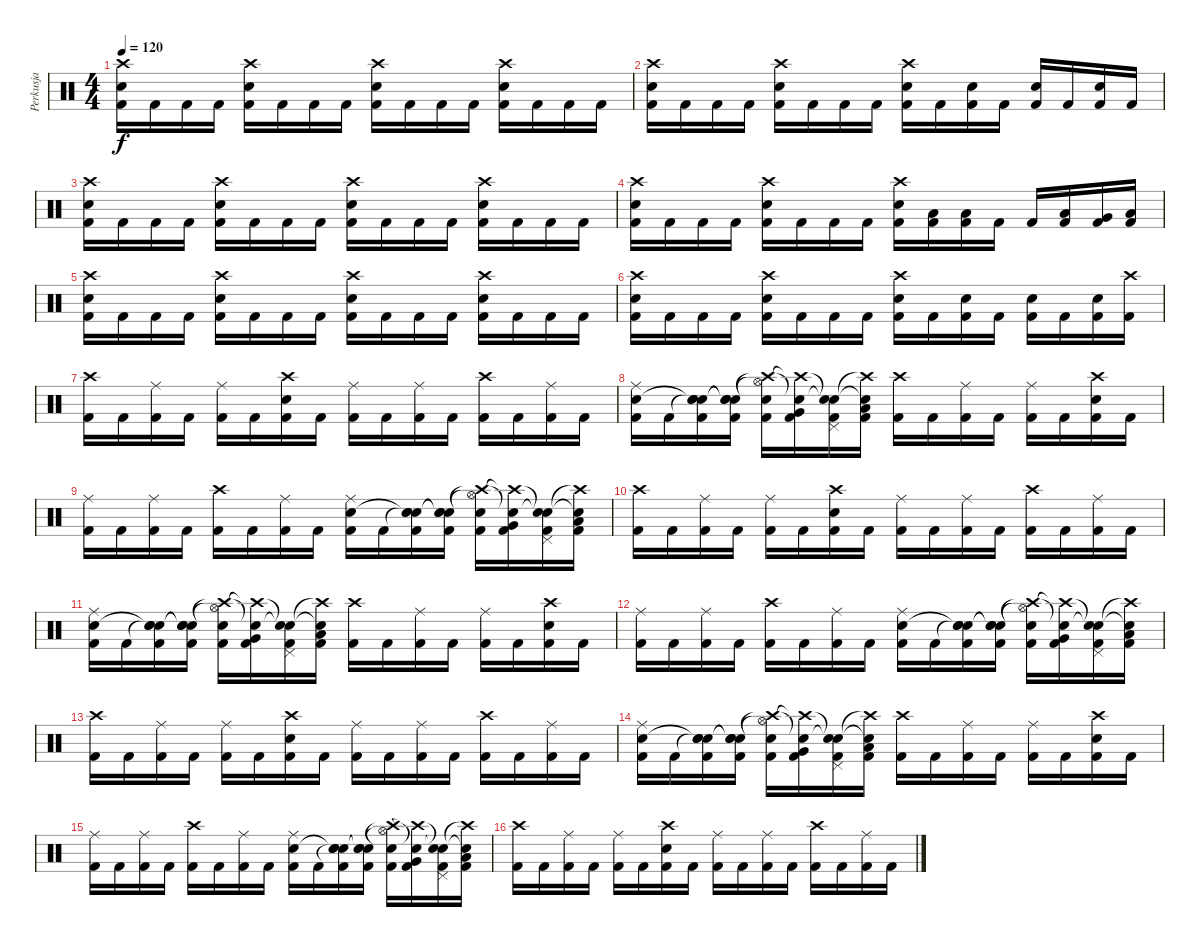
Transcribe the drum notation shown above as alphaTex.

\track ("Perkusja" "Perkusja") {instrument percussion}
\staff {score}
\articulation defaults
\ts (4 4)
\tempo 120
\clef neutral
\ks c
("Crash high (hit)" "Electric Snare (hit)" "Kick (hit) 2").16{dy f} "Kick (hit) 2".16 "Kick (hit) 2".16 "Kick (hit) 2".16 ("Crash high (hit)" "Electric Snare (hit)" "Kick (hit) 2").16 "Kick (hit) 2".16 "Kick (hit) 2".16 "Kick (hit) 2".16 ("Crash high (hit)" "Electric Snare (hit)" "Kick (hit) 2").16 "Kick (hit) 2".16 "Kick (hit) 2".16 "Kick (hit) 2".16 ("Crash high (hit)" "Electric Snare (hit)" "Kick (hit) 2").16 "Kick (hit) 2".16 "Kick (hit) 2".16 "Kick (hit) 2".16 |
("Crash high (hit)" "Electric Snare (hit)" "Kick (hit) 2").16 "Kick (hit) 2".16 "Kick (hit) 2".16 "Kick (hit) 2".16 ("Crash high (hit)" "Electric Snare (hit)" "Kick (hit) 2").16 "Kick (hit) 2".16 "Kick (hit) 2".16 "Kick (hit) 2".16 ("Crash high (hit)" "Electric Snare (hit)" "Kick (hit) 2").16 "Kick (hit) 2".16 ("Electric Snare (hit)" "Kick (hit) 2").16 "Kick (hit) 2".16 ("Electric Snare (hit)" "Kick (hit) 2").16 "Kick (hit) 2".16 ("Electric Snare (hit)" "Kick (hit) 2").16 "Kick (hit) 2".16 |
("Crash high (hit)" "Electric Snare (hit)" "Kick (hit) 2").16 "Kick (hit) 2".16 "Kick (hit) 2".16 "Kick (hit) 2".16 ("Crash high (hit)" "Electric Snare (hit)" "Kick (hit) 2").16 "Kick (hit) 2".16 "Kick (hit) 2".16 "Kick (hit) 2".16 ("Crash high (hit)" "Electric Snare (hit)" "Kick (hit) 2").16 "Kick (hit) 2".16 "Kick (hit) 2".16 "Kick (hit) 2".16 ("Crash high (hit)" "Electric Snare (hit)" "Kick (hit) 2").16 "Kick (hit) 2".16 "Kick (hit) 2".16 "Kick (hit) 2".16 |
("Crash high (hit)" "Electric Snare (hit)" "Kick (hit) 2").16 "Kick (hit) 2".16 "Kick (hit) 2".16 "Kick (hit) 2".16 ("Crash high (hit)" "Electric Snare (hit)" "Kick (hit) 2").16 "Kick (hit) 2".16 "Kick (hit) 2".16 "Kick (hit) 2".16 ("Crash high (hit)" "Electric Snare (hit)" "Kick (hit) 2").16 ("Low Floor Tom (hit)" "Kick (hit) 2").16 ("Low Floor Tom (hit)" "Kick (hit) 2").16 "Kick (hit) 2".16 "Kick (hit) 2".16 ("Low Floor Tom (hit)" "Kick (hit) 2").16 ("Very Low Tom (hit)" "Kick (hit) 2").16 ("Low Floor Tom (hit)" "Kick (hit) 2").16 |
("Crash high (hit)" "Electric Snare (hit)" "Kick (hit) 2").16 "Kick (hit) 2".16 "Kick (hit) 2".16 "Kick (hit) 2".16 ("Crash high (hit)" "Electric Snare (hit)" "Kick (hit) 2").16 "Kick (hit) 2".16 "Kick (hit) 2".16 "Kick (hit) 2".16 ("Crash high (hit)" "Electric Snare (hit)" "Kick (hit) 2").16 "Kick (hit) 2".16 "Kick (hit) 2".16 "Kick (hit) 2".16 ("Crash high (hit)" "Electric Snare (hit)" "Kick (hit) 2").16 "Kick (hit) 2".16 "Kick (hit) 2".16 "Kick (hit) 2".16 |
("Crash high (hit)" "Electric Snare (hit)" "Kick (hit) 2").16 "Kick (hit) 2".16 "Kick (hit) 2".16 "Kick (hit) 2".16 ("Crash high (hit)" "Electric Snare (hit)" "Kick (hit) 2").16 "Kick (hit) 2".16 "Kick (hit) 2".16 "Kick (hit) 2".16 ("Crash high (hit)" "Electric Snare (hit)" "Kick (hit) 2").16 "Kick (hit) 2".16 ("Electric Snare (hit)" "Kick (hit) 2").16 "Kick (hit) 2".16 ("Electric Snare (hit)" "Kick (hit) 2").16 "Kick (hit) 2".16 ("Electric Snare (hit)" "Kick (hit) 2").16 ("Crash high (hit)" "Kick (hit) 2").16 |
("Crash high (hit)" "Kick (hit) 2").16 "Kick (hit) 2".16 ("Ride (middle)" "Kick (hit) 2").16 "Kick (hit) 2".16 ("Ride (middle)" "Kick (hit) 2").16 "Kick (hit) 2".16 ("Crash high (hit)" "Electric Snare (hit)" "Kick (hit) 2").16 "Kick (hit) 2".16 ("Ride (middle)" "Kick (hit) 2").16 "Kick (hit) 2".16 ("Ride (middle)" "Kick (hit) 2").16 "Kick (hit) 2".16 ("Crash high (hit)" "Kick (hit) 2").16 "Kick (hit) 2".16 ("Ride (middle)" "Kick (hit) 2").16 "Kick (hit) 2".16 |
("Ride (middle)" "Electric Snare (hit)" "Kick (hit) 2").16 "Kick (hit) 2".16 ("Snare (hit)"{t} "Snare (hit)"{t} "Electric Snare (hit)" "Kick (hit) 2").16 ("Snare (hit)"{t} "Snare (hit)"{t} "Electric Snare (hit)" "Kick (hit) 2").16 ("Crash high (hit)"{t} "Hi-Hat (open)"{t} "Electric Snare (hit)" "Kick (hit) 2").16 ("Snare (hit)"{t} "Crash high (hit)"{t} "Very Low Tom (hit)" "Kick (hit) 2").16 ("Snare (hit)"{t} "Snare (hit)"{t} "Pedal Hi-Hat (hit)" "Kick (hit) 2").16 ("Snare (hit)"{t} "Crash high (hit)"{t} "Low Floor Tom (hit)" "Kick (hit) 2").16 ("Crash high (hit)" "Kick (hit) 2").16 "Kick (hit) 2".16 ("Ride (middle)" "Kick (hit) 2").16 "Kick (hit) 2".16 ("Ride (middle)" "Kick (hit) 2").16 "Kick (hit) 2".16 ("Crash high (hit)" "Electric Snare (hit)" "Kick (hit) 2").16 "Kick (hit) 2".16 |
("Ride (middle)" "Kick (hit) 2").16 "Kick (hit) 2".16 ("Ride (middle)" "Kick (hit) 2").16 "Kick (hit) 2".16 ("Crash high (hit)" "Kick (hit) 2").16 "Kick (hit) 2".16 ("Ride (middle)" "Kick (hit) 2").16 "Kick (hit) 2".16 ("Ride (middle)" "Electric Snare (hit)" "Kick (hit) 2").16 "Kick (hit) 2".16 ("Snare (hit)"{t} "Snare (hit)"{t} "Electric Snare (hit)" "Kick (hit) 2").16 ("Snare (hit)"{t} "Snare (hit)"{t} "Electric Snare (hit)" "Kick (hit) 2").16 ("Crash high (hit)"{t} "Hi-Hat (open)"{t} "Electric Snare (hit)" "Kick (hit) 2").16 ("Snare (hit)"{t} "Crash high (hit)"{t} "Very Low Tom (hit)" "Kick (hit) 2").16 ("Snare (hit)"{t} "Snare (hit)"{t} "Pedal Hi-Hat (hit)" "Kick (hit) 2").16 ("Snare (hit)"{t} "Crash high (hit)"{t} "Low Floor Tom (hit)" "Kick (hit) 2").16 |
("Crash high (hit)" "Kick (hit) 2").16 "Kick (hit) 2".16 ("Ride (middle)" "Kick (hit) 2").16 "Kick (hit) 2".16 ("Ride (middle)" "Kick (hit) 2").16 "Kick (hit) 2".16 ("Crash high (hit)" "Electric Snare (hit)" "Kick (hit) 2").16 "Kick (hit) 2".16 ("Ride (middle)" "Kick (hit) 2").16 "Kick (hit) 2".16 ("Ride (middle)" "Kick (hit) 2").16 "Kick (hit) 2".16 ("Crash high (hit)" "Kick (hit) 2").16 "Kick (hit) 2".16 ("Ride (middle)" "Kick (hit) 2").16 "Kick (hit) 2".16 |
("Ride (middle)" "Electric Snare (hit)" "Kick (hit) 2").16 "Kick (hit) 2".16 ("Snare (hit)"{t} "Snare (hit)"{t} "Electric Snare (hit)" "Kick (hit) 2").16 ("Snare (hit)"{t} "Snare (hit)"{t} "Electric Snare (hit)" "Kick (hit) 2").16 ("Crash high (hit)"{t} "Hi-Hat (open)"{t} "Electric Snare (hit)" "Kick (hit) 2").16 ("Snare (hit)"{t} "Crash high (hit)"{t} "Very Low Tom (hit)" "Kick (hit) 2").16 ("Snare (hit)"{t} "Snare (hit)"{t} "Pedal Hi-Hat (hit)" "Kick (hit) 2").16 ("Snare (hit)"{t} "Crash high (hit)"{t} "Low Floor Tom (hit)" "Kick (hit) 2").16 ("Crash high (hit)" "Kick (hit) 2").16 "Kick (hit) 2".16 ("Ride (middle)" "Kick (hit) 2").16 "Kick (hit) 2".16 ("Ride (middle)" "Kick (hit) 2").16 "Kick (hit) 2".16 ("Crash high (hit)" "Electric Snare (hit)" "Kick (hit) 2").16 "Kick (hit) 2".16 |
("Ride (middle)" "Kick (hit) 2").16 "Kick (hit) 2".16 ("Ride (middle)" "Kick (hit) 2").16 "Kick (hit) 2".16 ("Crash high (hit)" "Kick (hit) 2").16 "Kick (hit) 2".16 ("Ride (middle)" "Kick (hit) 2").16 "Kick (hit) 2".16 ("Ride (middle)" "Electric Snare (hit)" "Kick (hit) 2").16 "Kick (hit) 2".16 ("Snare (hit)"{t} "Snare (hit)"{t} "Electric Snare (hit)" "Kick (hit) 2").16 ("Snare (hit)"{t} "Snare (hit)"{t} "Electric Snare (hit)" "Kick (hit) 2").16 ("Crash high (hit)"{t} "Hi-Hat (open)"{t} "Electric Snare (hit)" "Kick (hit) 2").16 ("Snare (hit)"{t} "Crash high (hit)"{t} "Very Low Tom (hit)" "Kick (hit) 2").16 ("Snare (hit)"{t} "Snare (hit)"{t} "Pedal Hi-Hat (hit)" "Kick (hit) 2").16 ("Snare (hit)"{t} "Crash high (hit)"{t} "Low Floor Tom (hit)" "Kick (hit) 2").16 |
("Crash high (hit)" "Kick (hit) 2").16 "Kick (hit) 2".16 ("Ride (middle)" "Kick (hit) 2").16 "Kick (hit) 2".16 ("Ride (middle)" "Kick (hit) 2").16 "Kick (hit) 2".16 ("Crash high (hit)" "Electric Snare (hit)" "Kick (hit) 2").16 "Kick (hit) 2".16 ("Ride (middle)" "Kick (hit) 2").16 "Kick (hit) 2".16 ("Ride (middle)" "Kick (hit) 2").16 "Kick (hit) 2".16 ("Crash high (hit)" "Kick (hit) 2").16 "Kick (hit) 2".16 ("Ride (middle)" "Kick (hit) 2").16 "Kick (hit) 2".16 |
("Ride (middle)" "Electric Snare (hit)" "Kick (hit) 2").16 "Kick (hit) 2".16 ("Snare (hit)"{t} "Snare (hit)"{t} "Electric Snare (hit)" "Kick (hit) 2").16 ("Snare (hit)"{t} "Snare (hit)"{t} "Electric Snare (hit)" "Kick (hit) 2").16 ("Crash high (hit)"{t} "Hi-Hat (open)"{t} "Electric Snare (hit)" "Kick (hit) 2").16 ("Snare (hit)"{t} "Crash high (hit)"{t} "Very Low Tom (hit)" "Kick (hit) 2").16 ("Snare (hit)"{t} "Snare (hit)"{t} "Pedal Hi-Hat (hit)" "Kick (hit) 2").16 ("Snare (hit)"{t} "Crash high (hit)"{t} "Low Floor Tom (hit)" "Kick (hit) 2").16 ("Crash high (hit)" "Kick (hit) 2").16 "Kick (hit) 2".16 ("Ride (middle)" "Kick (hit) 2").16 "Kick (hit) 2".16 ("Ride (middle)" "Kick (hit) 2").16 "Kick (hit) 2".16 ("Crash high (hit)" "Electric Snare (hit)" "Kick (hit) 2").16 "Kick (hit) 2".16 |
("Ride (middle)" "Kick (hit) 2").16 "Kick (hit) 2".16 ("Ride (middle)" "Kick (hit) 2").16 "Kick (hit) 2".16 ("Crash high (hit)" "Kick (hit) 2").16 "Kick (hit) 2".16 ("Ride (middle)" "Kick (hit) 2").16 "Kick (hit) 2".16 ("Ride (middle)" "Electric Snare (hit)" "Kick (hit) 2").16 "Kick (hit) 2".16 ("Snare (hit)"{t} "Snare (hit)"{t} "Electric Snare (hit)" "Kick (hit) 2").16 ("Snare (hit)"{t} "Snare (hit)"{t} "Electric Snare (hit)" "Kick (hit) 2").16 ("Crash high (hit)"{t} "Hi-Hat (open)"{t} "Electric Snare (hit)" "Kick (hit) 2").16 ("Snare (hit)"{t} "Crash high (hit)"{t} "Very Low Tom (hit)" "Kick (hit) 2").16 ("Snare (hit)"{t} "Snare (hit)"{t} "Pedal Hi-Hat (hit)" "Kick (hit) 2").16 ("Snare (hit)"{t} "Crash high (hit)"{t} "Low Floor Tom (hit)" "Kick (hit) 2").16 |
("Crash high (hit)" "Kick (hit) 2").16 "Kick (hit) 2".16 ("Ride (middle)" "Kick (hit) 2").16 "Kick (hit) 2".16 ("Ride (middle)" "Kick (hit) 2").16 "Kick (hit) 2".16 ("Crash high (hit)" "Electric Snare (hit)" "Kick (hit) 2").16 "Kick (hit) 2".16 ("Ride (middle)" "Kick (hit) 2").16 "Kick (hit) 2".16 ("Ride (middle)" "Kick (hit) 2").16 "Kick (hit) 2".16 ("Crash high (hit)" "Kick (hit) 2").16 "Kick (hit) 2".16 ("Ride (middle)" "Kick (hit) 2").16 "Kick (hit) 2".16
